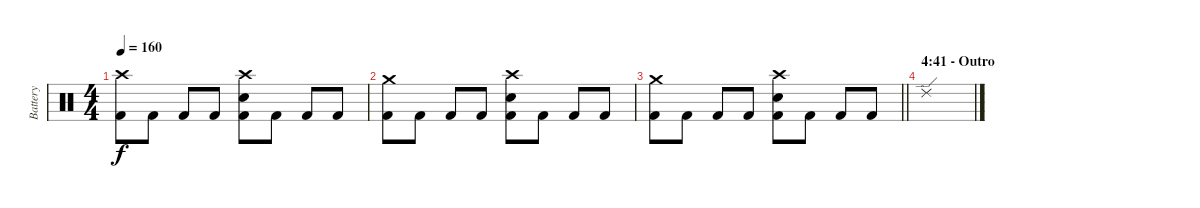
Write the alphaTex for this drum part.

\track ("Battery" "Battery") {instrument percussion}
\staff {score}
\articulation defaults
\ts (4 4)
\tempo 160
\clef neutral
\ks c
("Crash high (hit)" "Kick (hit) 2").8{dy f} "Kick (hit) 2".8 "Kick (hit) 2".8 "Kick (hit) 2".8 ("Crash high (hit)" "Electric Snare (hit)" "Kick (hit) 2").8 "Kick (hit) 2".8 "Kick (hit) 2".8 "Kick (hit) 2".8 |
("Crash medium (hit)" "Kick (hit) 2").8 "Kick (hit) 2".8 "Kick (hit) 2".8 "Kick (hit) 2".8 ("Crash high (hit)" "Electric Snare (hit)" "Kick (hit) 2").8 "Kick (hit) 2".8 "Kick (hit) 2".8 "Kick (hit) 2".8 |
\barLineRight lightlight
("Crash medium (hit)" "Kick (hit) 2").8 "Kick (hit) 2".8 "Kick (hit) 2".8 "Kick (hit) 2".8 ("Crash high (hit)" "Electric Snare (hit)" "Kick (hit) 2").8 "Kick (hit) 2".8 "Kick (hit) 2".8 "Kick (hit) 2".8 |
\section ("" "4:41 - Outro")
"Ride (edge) 2".1
